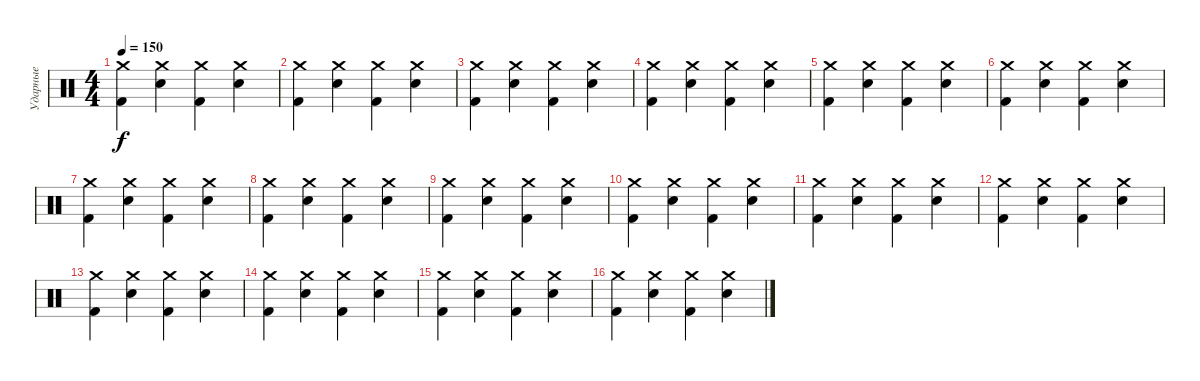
\track ("Ударные" "Ударные") {instrument percussion}
\staff {score}
\articulation defaults
\ts (4 4)
\tempo 150
\clef neutral
\ks c
("Crash medium (hit)" "Kick (hit) 2").4{dy f} ("Crash medium (hit)" "Electric Snare (hit)").4 ("Crash medium (hit)" "Kick (hit) 2").4 ("Crash medium (hit)" "Electric Snare (hit)").4 |
("Crash medium (hit)" "Kick (hit) 2").4 ("Crash medium (hit)" "Electric Snare (hit)").4 ("Crash medium (hit)" "Kick (hit) 2").4 ("Crash medium (hit)" "Electric Snare (hit)").4 |
("Crash medium (hit)" "Kick (hit) 2").4 ("Crash medium (hit)" "Electric Snare (hit)").4 ("Crash medium (hit)" "Kick (hit) 2").4 ("Crash medium (hit)" "Electric Snare (hit)").4 |
("Crash medium (hit)" "Kick (hit) 2").4 ("Crash medium (hit)" "Electric Snare (hit)").4 ("Crash medium (hit)" "Kick (hit) 2").4 ("Crash medium (hit)" "Electric Snare (hit)").4 |
("Crash medium (hit)" "Kick (hit) 2").4 ("Crash medium (hit)" "Electric Snare (hit)").4 ("Crash medium (hit)" "Kick (hit) 2").4 ("Crash medium (hit)" "Electric Snare (hit)").4 |
("Crash medium (hit)" "Kick (hit) 2").4 ("Crash medium (hit)" "Electric Snare (hit)").4 ("Crash medium (hit)" "Kick (hit) 2").4 ("Crash medium (hit)" "Electric Snare (hit)").4 |
("Crash medium (hit)" "Kick (hit) 2").4 ("Crash medium (hit)" "Electric Snare (hit)").4 ("Crash medium (hit)" "Kick (hit) 2").4 ("Crash medium (hit)" "Electric Snare (hit)").4 |
("Crash medium (hit)" "Kick (hit) 2").4 ("Crash medium (hit)" "Electric Snare (hit)").4 ("Crash medium (hit)" "Kick (hit) 2").4 ("Crash medium (hit)" "Electric Snare (hit)").4 |
("Crash medium (hit)" "Kick (hit) 2").4 ("Crash medium (hit)" "Electric Snare (hit)").4 ("Crash medium (hit)" "Kick (hit) 2").4 ("Crash medium (hit)" "Electric Snare (hit)").4 |
("Crash medium (hit)" "Kick (hit) 2").4 ("Crash medium (hit)" "Electric Snare (hit)").4 ("Crash medium (hit)" "Kick (hit) 2").4 ("Crash medium (hit)" "Electric Snare (hit)").4 |
("Crash medium (hit)" "Kick (hit) 2").4 ("Crash medium (hit)" "Electric Snare (hit)").4 ("Crash medium (hit)" "Kick (hit) 2").4 ("Crash medium (hit)" "Electric Snare (hit)").4 |
("Crash medium (hit)" "Kick (hit) 2").4 ("Crash medium (hit)" "Electric Snare (hit)").4 ("Crash medium (hit)" "Kick (hit) 2").4 ("Crash medium (hit)" "Electric Snare (hit)").4 |
("Crash medium (hit)" "Kick (hit) 2").4 ("Crash medium (hit)" "Electric Snare (hit)").4 ("Crash medium (hit)" "Kick (hit) 2").4 ("Crash medium (hit)" "Electric Snare (hit)").4 |
("Crash medium (hit)" "Kick (hit) 2").4 ("Crash medium (hit)" "Electric Snare (hit)").4 ("Crash medium (hit)" "Kick (hit) 2").4 ("Crash medium (hit)" "Electric Snare (hit)").4 |
("Crash medium (hit)" "Kick (hit) 2").4 ("Crash medium (hit)" "Electric Snare (hit)").4 ("Crash medium (hit)" "Kick (hit) 2").4 ("Crash medium (hit)" "Electric Snare (hit)").4 |
("Crash medium (hit)" "Kick (hit) 2").4 ("Crash medium (hit)" "Electric Snare (hit)").4 ("Crash medium (hit)" "Kick (hit) 2").4 ("Crash medium (hit)" "Electric Snare (hit)").4
